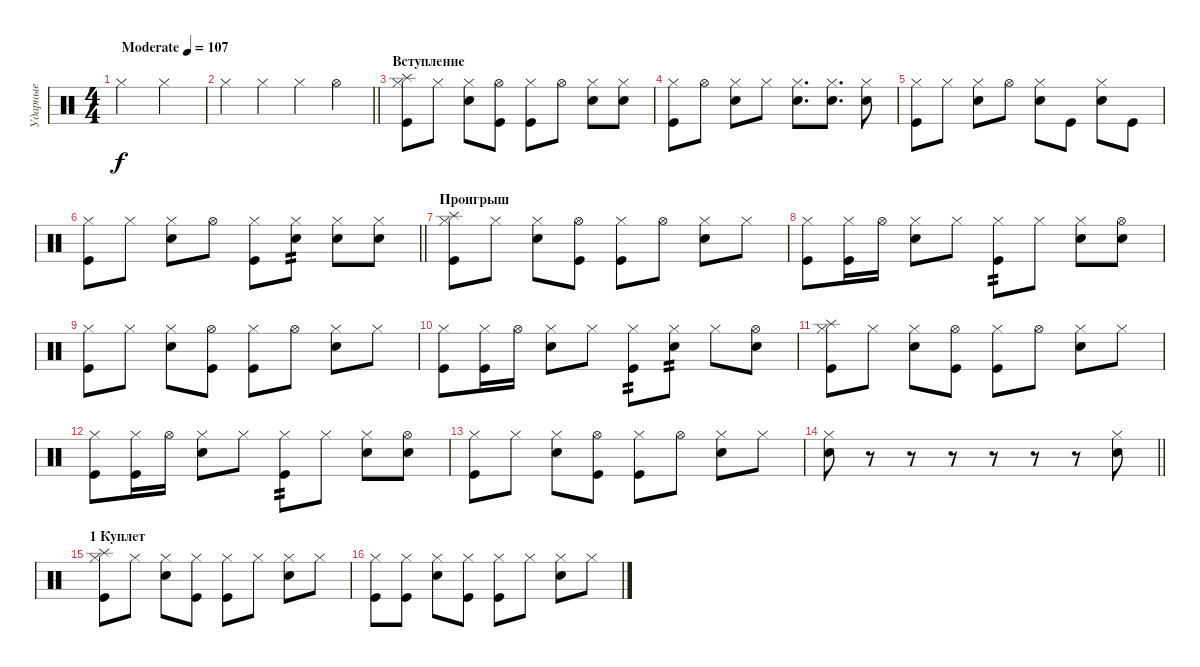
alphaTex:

\track ("Ударные" "Ударные") {instrument percussion}
\staff {score}
\articulation defaults
\ts (4 4)
\tempo (107 "Moderate")
\clef neutral
\ks c "Hi-Hat (closed)".2{dy f} "Hi-Hat (closed)".2
|
\barLineRight lightlight "Hi-Hat (closed)".4 "Hi-Hat (closed)".4 "Hi-Hat (closed)".4 "Hi-Hat (open)".4
|
\section ("" "Вступление")
("Hi-Hat (closed)" "Splash (hit)" "Kick (hit)").8 "Hi-Hat (closed)".8 ("Hi-Hat (closed)" "Electric Snare (hit)").8 ("Hi-Hat (open)" "Kick (hit)").8 ("Hi-Hat (closed)" "Kick (hit)").8 "Hi-Hat (open)".8 ("Hi-Hat (closed)" "Electric Snare (hit)").8 ("Hi-Hat (closed)" "Electric Snare (hit)").8 |
("Hi-Hat (closed)" "Kick (hit)").8 "Hi-Hat (open)".8 ("Hi-Hat (closed)" "Electric Snare (hit)").8 "Hi-Hat (closed)".8 ("Hi-Hat (closed)" "Electric Snare (hit)").8{d} ("Hi-Hat (closed)" "Electric Snare (hit)").8{d} ("Hi-Hat (closed)" "Electric Snare (hit)").8 |
("Hi-Hat (closed)" "Kick (hit)").8 "Hi-Hat (closed)".8 ("Hi-Hat (closed)" "Electric Snare (hit)").8 "Hi-Hat (open)".8 ("Hi-Hat (closed)" "Electric Snare (hit)").8 "Kick (hit)".8 ("Hi-Hat (closed)" "Electric Snare (hit)").8 "Kick (hit)".8 |
\barLineRight lightlight
("Hi-Hat (closed)" "Kick (hit)").8 "Hi-Hat (closed)".8 ("Hi-Hat (closed)" "Electric Snare (hit)").8 "Hi-Hat (open)".8 ("Hi-Hat (closed)" "Kick (hit)").8 ("Hi-Hat (closed)" "Electric Snare (hit)").8{tp 2} ("Hi-Hat (closed)" "Electric Snare (hit)").8 ("Hi-Hat (closed)" "Electric Snare (hit)").8 |
\section ("" "Проигрыш")
("Hi-Hat (closed)" "Splash (hit)" "Kick (hit)").8 "Hi-Hat (closed)".8 ("Hi-Hat (closed)" "Electric Snare (hit)").8 ("Hi-Hat (open)" "Kick (hit)").8 ("Hi-Hat (closed)" "Kick (hit)").8 "Hi-Hat (open)".8 ("Hi-Hat (closed)" "Electric Snare (hit)").8 "Hi-Hat (closed)".8 |
("Hi-Hat (closed)" "Kick (hit)").8 ("Hi-Hat (closed)" "Kick (hit)").16 "Hi-Hat (open)".16 ("Hi-Hat (closed)" "Electric Snare (hit)").8 "Hi-Hat (closed)".8 ("Hi-Hat (closed)" "Kick (hit)").8{tp 2} "Hi-Hat (closed)".8 ("Hi-Hat (closed)" "Electric Snare (hit)").8 ("Hi-Hat (open)" "Electric Snare (hit)").8 |
("Hi-Hat (closed)" "Kick (hit)").8 "Hi-Hat (closed)".8 ("Hi-Hat (closed)" "Electric Snare (hit)").8 ("Hi-Hat (open)" "Kick (hit)").8 ("Hi-Hat (closed)" "Kick (hit)").8 "Hi-Hat (open)".8 ("Hi-Hat (closed)" "Electric Snare (hit)").8 "Hi-Hat (closed)".8 |
("Hi-Hat (closed)" "Kick (hit)").8 ("Hi-Hat (closed)" "Kick (hit)").16 "Hi-Hat (open)".16 ("Hi-Hat (closed)" "Electric Snare (hit)").8 "Hi-Hat (closed)".8 ("Hi-Hat (closed)" "Kick (hit)").8{tp 2} ("Hi-Hat (closed)" "Electric Snare (hit)").8{tp 2} "Hi-Hat (closed)".8 ("Hi-Hat (open)" "Electric Snare (hit)").8 |
("Hi-Hat (closed)" "Splash (hit)" "Kick (hit)").8 "Hi-Hat (closed)".8 ("Hi-Hat (closed)" "Electric Snare (hit)").8 ("Hi-Hat (open)" "Kick (hit)").8 ("Hi-Hat (closed)" "Kick (hit)").8 "Hi-Hat (open)".8 ("Hi-Hat (closed)" "Electric Snare (hit)").8 "Hi-Hat (closed)".8 |
("Hi-Hat (closed)" "Kick (hit)").8 ("Hi-Hat (closed)" "Kick (hit)").16 "Hi-Hat (open)".16 ("Hi-Hat (closed)" "Electric Snare (hit)").8 "Hi-Hat (closed)".8 ("Hi-Hat (closed)" "Kick (hit)").8{tp 2} "Hi-Hat (closed)".8 ("Hi-Hat (closed)" "Electric Snare (hit)").8 ("Hi-Hat (open)" "Electric Snare (hit)").8 |
("Hi-Hat (closed)" "Kick (hit)").8 "Hi-Hat (closed)".8 ("Hi-Hat (closed)" "Electric Snare (hit)").8 ("Hi-Hat (open)" "Kick (hit)").8 ("Hi-Hat (closed)" "Kick (hit)").8 "Hi-Hat (open)".8 ("Hi-Hat (closed)" "Electric Snare (hit)").8 "Hi-Hat (closed)".8 |
\barLineRight lightlight
("Hi-Hat (closed)" "Electric Snare (hit)").8 r.8 r.8 r.8 r.8 r.8 r.8 ("Hi-Hat (closed)" "Electric Snare (hit)").8 |
\section ("" "1 Куплет")
("Hi-Hat (closed)" "Splash (hit)" "Kick (hit)").8 "Hi-Hat (closed)".8 ("Hi-Hat (closed)" "Electric Snare (hit)").8 ("Hi-Hat (closed)" "Kick (hit)").8 ("Hi-Hat (closed)" "Kick (hit)").8 "Hi-Hat (closed)".8 ("Hi-Hat (closed)" "Electric Snare (hit)").8 "Hi-Hat (closed)".8 |
("Hi-Hat (closed)" "Kick (hit)").8 ("Hi-Hat (closed)" "Kick (hit)").8 ("Hi-Hat (closed)" "Electric Snare (hit)").8 ("Hi-Hat (closed)" "Kick (hit)").8 ("Hi-Hat (closed)" "Kick (hit)").8 "Hi-Hat (closed)".8 ("Hi-Hat (closed)" "Electric Snare (hit)").8 "Hi-Hat (closed)".8
